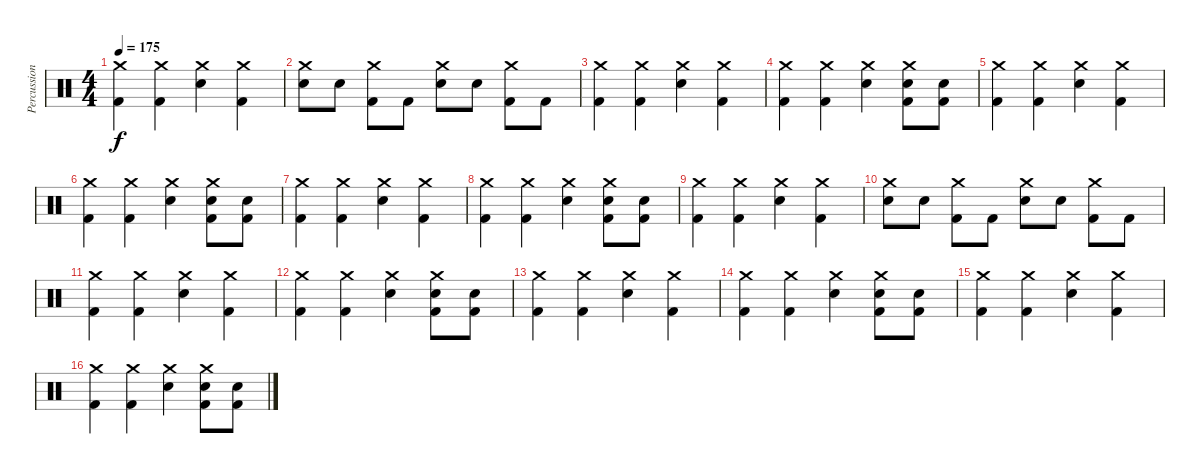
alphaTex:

\track ("Percussions" "Percussion") {instrument percussion}
\staff {score}
\articulation defaults
\ts (4 4)
\tempo 175
\clef neutral
\ks c
("Crash medium (hit)" "Kick (hit) 2").4{dy f} ("Crash medium (hit)" "Kick (hit) 2").4 ("Crash medium (hit)" "Snare (hit) 2").4 ("Crash medium (hit)" "Kick (hit) 2").4 |
("Crash medium (hit)" "Snare (hit) 2").8 "Snare (hit) 2".8 ("Crash medium (hit)" "Kick (hit) 2").8 "Kick (hit) 2".8 ("Crash medium (hit)" "Snare (hit) 2").8 "Snare (hit) 2".8 ("Crash medium (hit)" "Kick (hit) 2").8 "Kick (hit) 2".8 |
("Crash medium (hit)" "Kick (hit) 2").4 ("Crash medium (hit)" "Kick (hit) 2").4 ("Crash medium (hit)" "Snare (hit) 2").4 ("Crash medium (hit)" "Kick (hit) 2").4 |
("Crash medium (hit)" "Kick (hit) 2").4 ("Crash medium (hit)" "Kick (hit) 2").4 ("Crash medium (hit)" "Snare (hit) 2").4 ("Crash medium (hit)" "Snare (hit) 2" "Kick (hit) 2").8 ("Snare (hit) 2" "Kick (hit) 2").8 |
("Crash medium (hit)" "Kick (hit) 2").4 ("Crash medium (hit)" "Kick (hit) 2").4 ("Crash medium (hit)" "Snare (hit) 2").4 ("Crash medium (hit)" "Kick (hit) 2").4 |
("Crash medium (hit)" "Kick (hit) 2").4 ("Crash medium (hit)" "Kick (hit) 2").4 ("Crash medium (hit)" "Snare (hit) 2").4 ("Crash medium (hit)" "Snare (hit) 2" "Kick (hit) 2").8 ("Snare (hit) 2" "Kick (hit) 2").8 |
("Crash medium (hit)" "Kick (hit) 2").4 ("Crash medium (hit)" "Kick (hit) 2").4 ("Crash medium (hit)" "Snare (hit) 2").4 ("Crash medium (hit)" "Kick (hit) 2").4 |
("Crash medium (hit)" "Kick (hit) 2").4 ("Crash medium (hit)" "Kick (hit) 2").4 ("Crash medium (hit)" "Snare (hit) 2").4 ("Crash medium (hit)" "Snare (hit) 2" "Kick (hit) 2").8 ("Snare (hit) 2" "Kick (hit) 2").8 |
("Crash medium (hit)" "Kick (hit) 2").4 ("Crash medium (hit)" "Kick (hit) 2").4 ("Crash medium (hit)" "Snare (hit) 2").4 ("Crash medium (hit)" "Kick (hit) 2").4 |
("Crash medium (hit)" "Snare (hit) 2").8 "Snare (hit) 2".8 ("Crash medium (hit)" "Kick (hit) 2").8 "Kick (hit) 2".8 ("Crash medium (hit)" "Snare (hit) 2").8 "Snare (hit) 2".8 ("Crash medium (hit)" "Kick (hit) 2").8 "Kick (hit) 2".8 |
("Crash medium (hit)" "Kick (hit) 2").4 ("Crash medium (hit)" "Kick (hit) 2").4 ("Crash medium (hit)" "Snare (hit) 2").4 ("Crash medium (hit)" "Kick (hit) 2").4 |
("Crash medium (hit)" "Kick (hit) 2").4 ("Crash medium (hit)" "Kick (hit) 2").4 ("Crash medium (hit)" "Snare (hit) 2").4 ("Crash medium (hit)" "Snare (hit) 2" "Kick (hit) 2").8 ("Snare (hit) 2" "Kick (hit) 2").8 |
("Crash medium (hit)" "Kick (hit) 2").4 ("Crash medium (hit)" "Kick (hit) 2").4 ("Crash medium (hit)" "Snare (hit) 2").4 ("Crash medium (hit)" "Kick (hit) 2").4 |
("Crash medium (hit)" "Kick (hit) 2").4 ("Crash medium (hit)" "Kick (hit) 2").4 ("Crash medium (hit)" "Snare (hit) 2").4 ("Crash medium (hit)" "Snare (hit) 2" "Kick (hit) 2").8 ("Snare (hit) 2" "Kick (hit) 2").8 |
("Crash medium (hit)" "Kick (hit) 2").4 ("Crash medium (hit)" "Kick (hit) 2").4 ("Crash medium (hit)" "Snare (hit) 2").4 ("Crash medium (hit)" "Kick (hit) 2").4 |
("Crash medium (hit)" "Kick (hit) 2").4 ("Crash medium (hit)" "Kick (hit) 2").4 ("Crash medium (hit)" "Snare (hit) 2").4 ("Crash medium (hit)" "Snare (hit) 2" "Kick (hit) 2").8 ("Snare (hit) 2" "Kick (hit) 2").8
